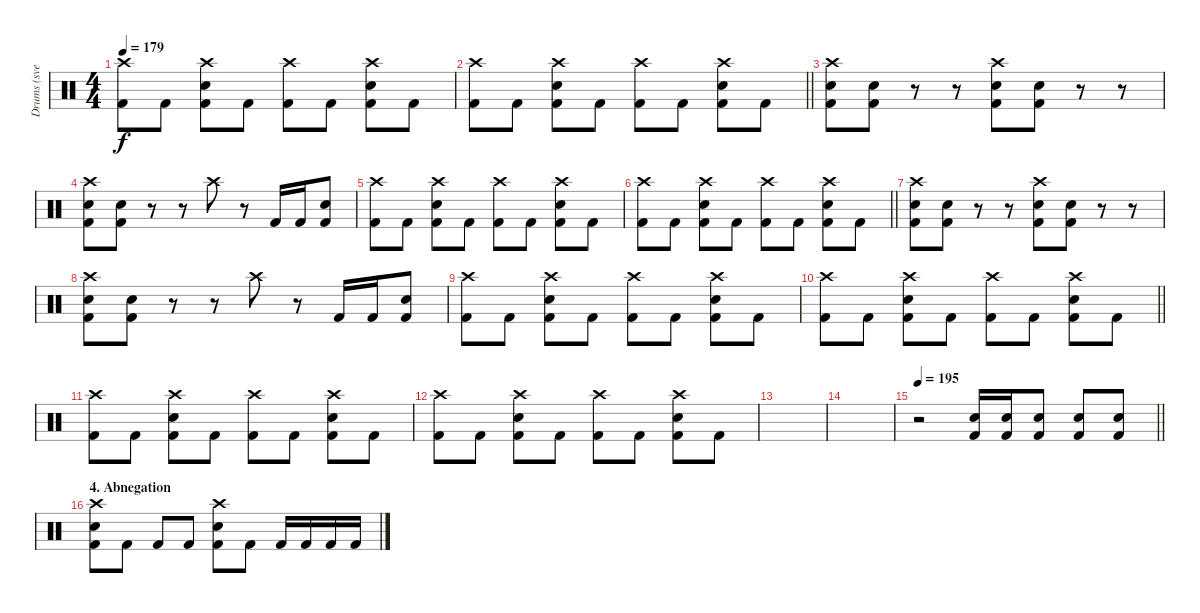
\track ("Drums (svelle)" "Drums (sve") {instrument percussion}
\staff {score}
\articulation defaults
\ts (4 4)
\tempo 179
\clef neutral
\ks c
("Crash high (hit)" "Kick (hit) 2").8{dy f} "Kick (hit) 2".8 ("Crash high (hit)" "Electric Snare (hit)" "Kick (hit) 2").8 "Kick (hit) 2".8 ("Crash high (hit)" "Kick (hit) 2").8 "Kick (hit) 2".8 ("Crash high (hit)" "Electric Snare (hit)" "Kick (hit) 2").8 "Kick (hit) 2".8 |
\barLineRight lightlight
("Crash high (hit)" "Kick (hit) 2").8 "Kick (hit) 2".8 ("Crash high (hit)" "Electric Snare (hit)" "Kick (hit) 2").8 "Kick (hit) 2".8 ("Crash high (hit)" "Kick (hit) 2").8 "Kick (hit) 2".8 ("Crash high (hit)" "Electric Snare (hit)" "Kick (hit) 2").8 "Kick (hit) 2".8 |
("Crash high (hit)" "Electric Snare (hit)" "Kick (hit) 2").8 ("Electric Snare (hit)" "Kick (hit) 2").8 r.8 r.8 ("Crash high (hit)" "Electric Snare (hit)" "Kick (hit) 2").8 ("Electric Snare (hit)" "Kick (hit) 2").8 r.8 r.8 |
("Crash high (hit)" "Electric Snare (hit)" "Kick (hit) 2").8 ("Electric Snare (hit)" "Kick (hit) 2").8 r.8 r.8 "Crash high (hit)".8 r.8 "Kick (hit) 2".16 "Kick (hit) 2".16 ("Electric Snare (hit)" "Kick (hit) 2").8 |
("Crash high (hit)" "Kick (hit) 2").8 "Kick (hit) 2".8 ("Crash high (hit)" "Electric Snare (hit)" "Kick (hit) 2").8 "Kick (hit) 2".8 ("Crash high (hit)" "Kick (hit) 2").8 "Kick (hit) 2".8 ("Crash high (hit)" "Electric Snare (hit)" "Kick (hit) 2").8 "Kick (hit) 2".8 |
\barLineRight lightlight
("Crash high (hit)" "Kick (hit) 2").8 "Kick (hit) 2".8 ("Crash high (hit)" "Electric Snare (hit)" "Kick (hit) 2").8 "Kick (hit) 2".8 ("Crash high (hit)" "Kick (hit) 2").8 "Kick (hit) 2".8 ("Crash high (hit)" "Electric Snare (hit)" "Kick (hit) 2").8 "Kick (hit) 2".8 |
("Crash high (hit)" "Electric Snare (hit)" "Kick (hit) 2").8 ("Electric Snare (hit)" "Kick (hit) 2").8 r.8 r.8 ("Crash high (hit)" "Electric Snare (hit)" "Kick (hit) 2").8 ("Electric Snare (hit)" "Kick (hit) 2").8 r.8 r.8 |
("Crash high (hit)" "Electric Snare (hit)" "Kick (hit) 2").8 ("Electric Snare (hit)" "Kick (hit) 2").8 r.8 r.8 "Crash high (hit)".8 r.8 "Kick (hit) 2".16 "Kick (hit) 2".16 ("Electric Snare (hit)" "Kick (hit) 2").8 |
("Crash high (hit)" "Kick (hit) 2").8 "Kick (hit) 2".8 ("Crash high (hit)" "Electric Snare (hit)" "Kick (hit) 2").8 "Kick (hit) 2".8 ("Crash high (hit)" "Kick (hit) 2").8 "Kick (hit) 2".8 ("Crash high (hit)" "Electric Snare (hit)" "Kick (hit) 2").8 "Kick (hit) 2".8 |
\barLineRight lightlight
("Crash high (hit)" "Kick (hit) 2").8 "Kick (hit) 2".8 ("Crash high (hit)" "Electric Snare (hit)" "Kick (hit) 2").8 "Kick (hit) 2".8 ("Crash high (hit)" "Kick (hit) 2").8 "Kick (hit) 2".8 ("Crash high (hit)" "Electric Snare (hit)" "Kick (hit) 2").8 "Kick (hit) 2".8 |
("Crash high (hit)" "Kick (hit) 2").8 "Kick (hit) 2".8 ("Crash high (hit)" "Electric Snare (hit)" "Kick (hit) 2").8 "Kick (hit) 2".8 ("Crash high (hit)" "Kick (hit) 2").8 "Kick (hit) 2".8 ("Crash high (hit)" "Electric Snare (hit)" "Kick (hit) 2").8 "Kick (hit) 2".8 |
("Crash high (hit)" "Kick (hit) 2").8 "Kick (hit) 2".8 ("Crash high (hit)" "Electric Snare (hit)" "Kick (hit) 2").8 "Kick (hit) 2".8 ("Crash high (hit)" "Kick (hit) 2").8 "Kick (hit) 2".8 ("Crash high (hit)" "Electric Snare (hit)" "Kick (hit) 2").8 "Kick (hit) 2".8 |
|
|
\tempo 195
\barLineRight lightlight
r.2 ("Electric Snare (hit)" "Kick (hit) 2").16 ("Electric Snare (hit)" "Kick (hit) 2").16 ("Electric Snare (hit)" "Kick (hit) 2").8 ("Electric Snare (hit)" "Kick (hit) 2").8 ("Electric Snare (hit)" "Kick (hit) 2").8 |
\section ("" "4. Abnegation")
("Crash high (hit)" "Electric Snare (hit)" "Kick (hit) 2").8 "Kick (hit) 2".8 "Kick (hit) 2".8 "Kick (hit) 2".8 ("Crash high (hit)" "Electric Snare (hit)" "Kick (hit) 2").8 "Kick (hit) 2".8 "Kick (hit) 2".16 "Kick (hit) 2".16 "Kick (hit) 2".16 "Kick (hit) 2".16
